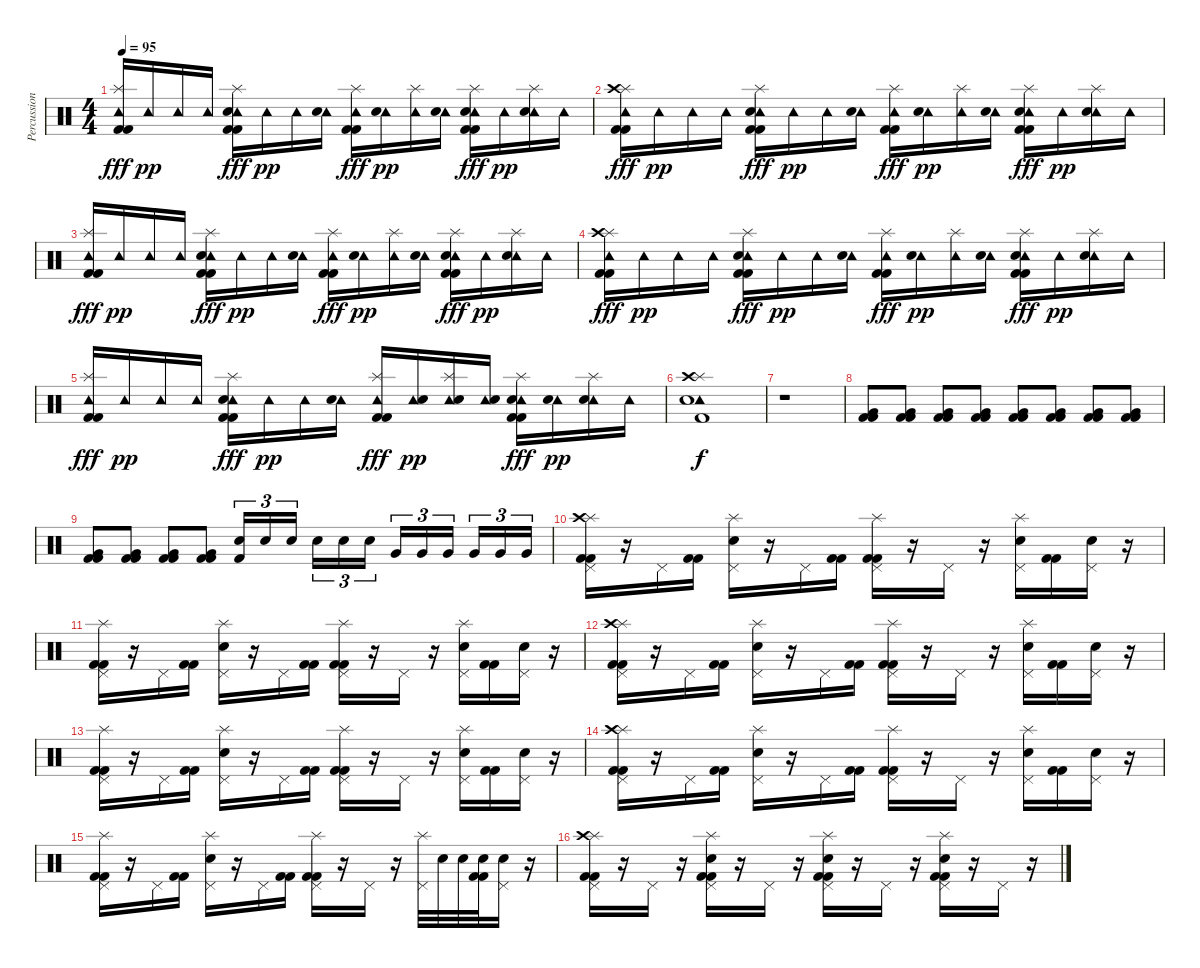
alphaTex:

\track ("Percussion" "Percussion") {instrument percussion}
\staff {score}
\articulation defaults
\ts (4 4)
\tempo 95
\clef neutral
\ks c
("Tambourine (hit)" "Splash (hit)" "Kick (hit) 2" "Kick (hit) 2").16{dy fff} "Tambourine (hit)".16{dy pp} "Tambourine (hit)".16 "Tambourine (hit)".16 ("Tambourine (hit)" "Splash (hit)" "Electric Snare (hit)" "Kick (hit) 2" "Kick (hit) 2").16{dy fff} "Tambourine (hit)".16{dy pp} "Tambourine (hit)".16 ("Tambourine (hit)" "Electric Snare (hit)").16 ("Tambourine (hit)" "Splash (hit)" "Kick (hit) 2" "Kick (hit) 2").16{dy fff} ("Tambourine (hit)" "Electric Snare (hit)").16{dy pp} ("Tambourine (hit)" "Splash (hit)").16 ("Tambourine (hit)" "Electric Snare (hit)").16 ("Tambourine (hit)" "Splash (hit)" "Electric Snare (hit)" "Kick (hit) 2" "Kick (hit) 2").16{dy fff} "Tambourine (hit)".16{dy pp} ("Tambourine (hit)" "Splash (hit)" "Electric Snare (hit)").16 "Tambourine (hit)".16 |
("Tambourine (hit)" "Splash (hit)" "Crash high (hit)" "Kick (hit) 2" "Kick (hit) 2").16{dy fff} "Tambourine (hit)".16{dy pp} "Tambourine (hit)".16 "Tambourine (hit)".16 ("Tambourine (hit)" "Splash (hit)" "Electric Snare (hit)" "Kick (hit) 2" "Kick (hit) 2").16{dy fff} "Tambourine (hit)".16{dy pp} "Tambourine (hit)".16 ("Tambourine (hit)" "Electric Snare (hit)").16 ("Tambourine (hit)" "Splash (hit)" "Kick (hit) 2" "Kick (hit) 2").16{dy fff} ("Tambourine (hit)" "Electric Snare (hit)").16{dy pp} ("Tambourine (hit)" "Splash (hit)").16 ("Tambourine (hit)" "Electric Snare (hit)").16 ("Tambourine (hit)" "Splash (hit)" "Electric Snare (hit)" "Kick (hit) 2" "Kick (hit) 2").16{dy fff} "Tambourine (hit)".16{dy pp} ("Tambourine (hit)" "Splash (hit)" "Electric Snare (hit)").16 "Tambourine (hit)".16 |
("Tambourine (hit)" "Splash (hit)" "Kick (hit) 2" "Kick (hit) 2").16{dy fff} "Tambourine (hit)".16{dy pp} "Tambourine (hit)".16 "Tambourine (hit)".16 ("Tambourine (hit)" "Splash (hit)" "Electric Snare (hit)" "Kick (hit) 2" "Kick (hit) 2").16{dy fff} "Tambourine (hit)".16{dy pp} "Tambourine (hit)".16 ("Tambourine (hit)" "Electric Snare (hit)").16 ("Tambourine (hit)" "Splash (hit)" "Kick (hit) 2" "Kick (hit) 2").16{dy fff} ("Tambourine (hit)" "Electric Snare (hit)").16{dy pp} ("Tambourine (hit)" "Splash (hit)").16 ("Tambourine (hit)" "Electric Snare (hit)").16 ("Tambourine (hit)" "Splash (hit)" "Electric Snare (hit)" "Kick (hit) 2" "Kick (hit) 2").16{dy fff} "Tambourine (hit)".16{dy pp} ("Tambourine (hit)" "Splash (hit)" "Electric Snare (hit)").16 "Tambourine (hit)".16 |
("Tambourine (hit)" "Splash (hit)" "Crash high (hit)" "Kick (hit) 2" "Kick (hit) 2").16{dy fff} "Tambourine (hit)".16{dy pp} "Tambourine (hit)".16 "Tambourine (hit)".16 ("Tambourine (hit)" "Splash (hit)" "Electric Snare (hit)" "Kick (hit) 2" "Kick (hit) 2").16{dy fff} "Tambourine (hit)".16{dy pp} "Tambourine (hit)".16 ("Tambourine (hit)" "Electric Snare (hit)").16 ("Tambourine (hit)" "Splash (hit)" "Kick (hit) 2" "Kick (hit) 2").16{dy fff} ("Tambourine (hit)" "Electric Snare (hit)").16{dy pp} ("Tambourine (hit)" "Splash (hit)").16 ("Tambourine (hit)" "Electric Snare (hit)").16 ("Tambourine (hit)" "Splash (hit)" "Electric Snare (hit)" "Kick (hit) 2" "Kick (hit) 2").16{dy fff} "Tambourine (hit)".16{dy pp} ("Tambourine (hit)" "Splash (hit)" "Electric Snare (hit)").16 "Tambourine (hit)".16 |
("Tambourine (hit)" "Splash (hit)" "Kick (hit) 2" "Kick (hit) 2").16{dy fff} "Tambourine (hit)".16{dy pp} "Tambourine (hit)".16 "Tambourine (hit)".16 ("Tambourine (hit)" "Splash (hit)" "Electric Snare (hit)" "Kick (hit) 2" "Kick (hit) 2").16{dy fff} "Tambourine (hit)".16{dy pp} "Tambourine (hit)".16 ("Tambourine (hit)" "Electric Snare (hit)").16 ("Tambourine (hit)" "Splash (hit)" "Kick (hit) 2" "Kick (hit) 2").16{dy fff} ("Tambourine (hit)" "Electric Snare (hit)").16{dy pp} ("Tambourine (hit)" "Splash (hit)" "Electric Snare (hit)").16 ("Tambourine (hit)" "Snare (hit) 2").16 ("Tambourine (hit)" "Splash (hit)" "Snare (hit) 2" "Kick (hit) 2" "Kick (hit) 2").16{dy fff} ("Tambourine (hit)" "Snare (hit) 2").16{dy pp} ("Tambourine (hit)" "Splash (hit)" "Snare (hit) 2").16 "Tambourine (hit)".16 |
("Tambourine (hit)" "Splash (hit)" "Electric Snare (hit)" "Kick (hit) 2" "Crash high (hit)").1{dy f} |
r.1 |
("Very Low Tom (hit)" "Kick (hit) 2" "Kick (hit) 2").8 ("Very Low Tom (hit)" "Kick (hit) 2" "Kick (hit) 2").8 ("Very Low Tom (hit)" "Kick (hit) 2" "Kick (hit) 2").8 ("Very Low Tom (hit)" "Kick (hit) 2" "Kick (hit) 2").8 ("Very Low Tom (hit)" "Kick (hit) 2" "Kick (hit) 2").8 ("Very Low Tom (hit)" "Kick (hit) 2" "Kick (hit) 2").8 ("Very Low Tom (hit)" "Kick (hit) 2" "Kick (hit) 2").8 ("Very Low Tom (hit)" "Kick (hit) 2" "Kick (hit) 2").8 |
("Very Low Tom (hit)" "Kick (hit) 2" "Kick (hit) 2").8 ("Very Low Tom (hit)" "Kick (hit) 2" "Kick (hit) 2").8 ("Very Low Tom (hit)" "Kick (hit) 2" "Kick (hit) 2").8 ("Very Low Tom (hit)" "Kick (hit) 2" "Kick (hit) 2").8 ("Electric Snare (hit)" "Kick (hit) 2").16{tu (3 2)} "Electric Snare (hit)".16{tu (3 2)} "Electric Snare (hit)".16{tu (3 2)} "Electric Snare (hit)".16{tu (3 2)} "Electric Snare (hit)".16{tu (3 2)} "Electric Snare (hit)".16{tu (3 2)} "Very Low Tom (hit)".16{tu (3 2)} "Very Low Tom (hit)".16{tu (3 2)} "Very Low Tom (hit)".16{tu (3 2)} "Very Low Tom (hit)".16{tu (3 2)} "Very Low Tom (hit)".16{tu (3 2)} "Very Low Tom (hit)".16{tu (3 2)} |
("Pedal Hi-Hat (hit)" "Splash (hit)" "Crash high (hit)" "Kick (hit) 2" "Kick (hit) 2").16 r.16 "Pedal Hi-Hat (hit)".16 ("Kick (hit) 2" "Kick (hit) 2").16 ("Pedal Hi-Hat (hit)" "Splash (hit)" "Electric Snare (hit)").16 r.16 "Pedal Hi-Hat (hit)".16 ("Kick (hit) 2" "Kick (hit) 2").16 ("Pedal Hi-Hat (hit)" "Splash (hit)" "Kick (hit) 2" "Kick (hit) 2").16 r.16 "Pedal Hi-Hat (hit)".16 r.16 ("Pedal Hi-Hat (hit)" "Splash (hit)" "Electric Snare (hit)").16 ("Kick (hit) 2" "Kick (hit) 2").16 ("Pedal Hi-Hat (hit)" "Electric Snare (hit)").16 r.16 |
("Pedal Hi-Hat (hit)" "Splash (hit)" "Kick (hit) 2" "Kick (hit) 2").16 r.16 "Pedal Hi-Hat (hit)".16 ("Kick (hit) 2" "Kick (hit) 2").16 ("Pedal Hi-Hat (hit)" "Splash (hit)" "Electric Snare (hit)").16 r.16 "Pedal Hi-Hat (hit)".16 ("Kick (hit) 2" "Kick (hit) 2").16 ("Pedal Hi-Hat (hit)" "Splash (hit)" "Kick (hit) 2" "Kick (hit) 2").16 r.16 "Pedal Hi-Hat (hit)".16 r.16 ("Pedal Hi-Hat (hit)" "Splash (hit)" "Electric Snare (hit)").16 ("Kick (hit) 2" "Kick (hit) 2").16 ("Pedal Hi-Hat (hit)" "Electric Snare (hit)").16 r.16 |
("Pedal Hi-Hat (hit)" "Splash (hit)" "Crash high (hit)" "Kick (hit) 2" "Kick (hit) 2").16 r.16 "Pedal Hi-Hat (hit)".16 ("Kick (hit) 2" "Kick (hit) 2").16 ("Pedal Hi-Hat (hit)" "Splash (hit)" "Electric Snare (hit)").16 r.16 "Pedal Hi-Hat (hit)".16 ("Kick (hit) 2" "Kick (hit) 2").16 ("Pedal Hi-Hat (hit)" "Splash (hit)" "Kick (hit) 2" "Kick (hit) 2").16 r.16 "Pedal Hi-Hat (hit)".16 r.16 ("Pedal Hi-Hat (hit)" "Splash (hit)" "Electric Snare (hit)").16 ("Kick (hit) 2" "Kick (hit) 2").16 ("Pedal Hi-Hat (hit)" "Electric Snare (hit)").16 r.16 |
("Pedal Hi-Hat (hit)" "Splash (hit)" "Kick (hit) 2" "Kick (hit) 2").16 r.16 "Pedal Hi-Hat (hit)".16 ("Kick (hit) 2" "Kick (hit) 2").16 ("Pedal Hi-Hat (hit)" "Splash (hit)" "Electric Snare (hit)").16 r.16 "Pedal Hi-Hat (hit)".16 ("Kick (hit) 2" "Kick (hit) 2").16 ("Pedal Hi-Hat (hit)" "Splash (hit)" "Kick (hit) 2" "Kick (hit) 2").16 r.16 "Pedal Hi-Hat (hit)".16 r.16 ("Pedal Hi-Hat (hit)" "Splash (hit)" "Electric Snare (hit)").16 ("Kick (hit) 2" "Kick (hit) 2").16 ("Pedal Hi-Hat (hit)" "Electric Snare (hit)").16 r.16 |
("Pedal Hi-Hat (hit)" "Splash (hit)" "Crash high (hit)" "Kick (hit) 2" "Kick (hit) 2").16 r.16 "Pedal Hi-Hat (hit)".16 ("Kick (hit) 2" "Kick (hit) 2").16 ("Pedal Hi-Hat (hit)" "Splash (hit)" "Electric Snare (hit)").16 r.16 "Pedal Hi-Hat (hit)".16 ("Kick (hit) 2" "Kick (hit) 2").16 ("Pedal Hi-Hat (hit)" "Splash (hit)" "Kick (hit) 2" "Kick (hit) 2").16 r.16 "Pedal Hi-Hat (hit)".16 r.16 ("Pedal Hi-Hat (hit)" "Splash (hit)" "Electric Snare (hit)").16 ("Kick (hit) 2" "Kick (hit) 2").16 ("Pedal Hi-Hat (hit)" "Electric Snare (hit)").16 r.16 |
("Pedal Hi-Hat (hit)" "Splash (hit)" "Kick (hit) 2" "Kick (hit) 2").16 r.16 "Pedal Hi-Hat (hit)".16 ("Kick (hit) 2" "Kick (hit) 2").16 ("Pedal Hi-Hat (hit)" "Splash (hit)" "Electric Snare (hit)").16 r.16 "Pedal Hi-Hat (hit)".16 ("Kick (hit) 2" "Kick (hit) 2").16 ("Pedal Hi-Hat (hit)" "Splash (hit)" "Kick (hit) 2" "Kick (hit) 2").16 r.16 "Pedal Hi-Hat (hit)".16 r.16 ("Pedal Hi-Hat (hit)" "Splash (hit)").32 "Electric Snare (hit)".32 "Electric Snare (hit)".32 ("Electric Snare (hit)" "Kick (hit) 2" "Kick (hit) 2").32 ("Pedal Hi-Hat (hit)" "Electric Snare (hit)").16 r.16 |
("Pedal Hi-Hat (hit)" "Splash (hit)" "Crash high (hit)" "Kick (hit) 2" "Kick (hit) 2").16 r.16 "Pedal Hi-Hat (hit)".16 r.16 ("Pedal Hi-Hat (hit)" "Splash (hit)" "Electric Snare (hit)" "Kick (hit) 2" "Kick (hit) 2").16 r.16 "Pedal Hi-Hat (hit)".16 r.16 ("Pedal Hi-Hat (hit)" "Splash (hit)" "Electric Snare (hit)" "Kick (hit) 2" "Kick (hit) 2").16 r.16 "Pedal Hi-Hat (hit)".16 r.16 ("Pedal Hi-Hat (hit)" "Splash (hit)" "Electric Snare (hit)" "Kick (hit) 2" "Kick (hit) 2").16 r.16 "Pedal Hi-Hat (hit)".16 r.16
